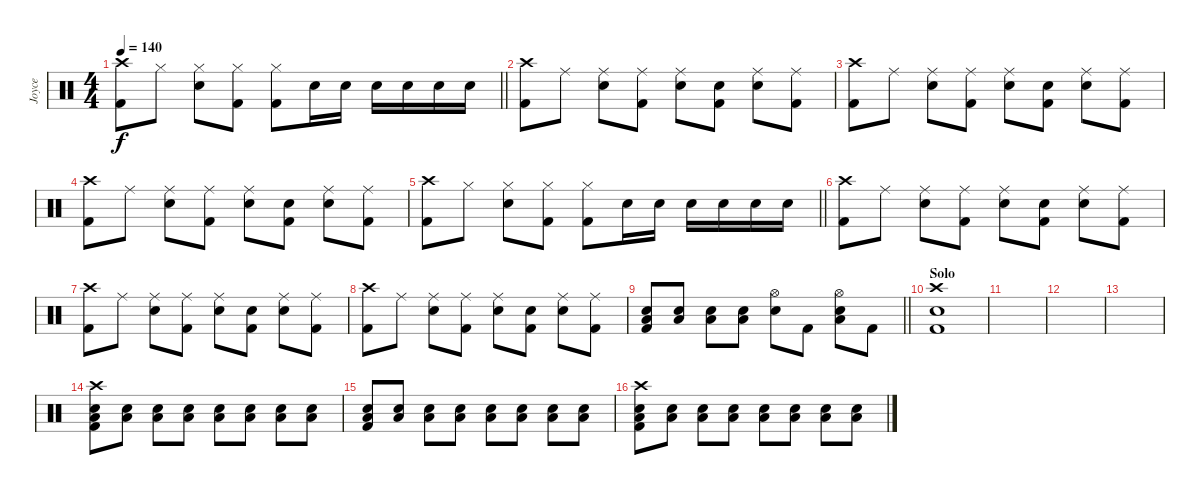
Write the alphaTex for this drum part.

\track ("Joyce" "Joyce") {instrument percussion}
\staff {score}
\articulation defaults
\ts (4 4)
\tempo 140
\clef neutral
\barLineRight lightlight
\ks c
("Crash high (hit)" "Kick (hit) 2").8{dy f} "Hi-Hat (closed)".8 ("Hi-Hat (closed)" "Snare (hit) 2").8 ("Hi-Hat (closed)" "Kick (hit) 2").8 ("Hi-Hat (closed)" "Kick (hit) 2").8 "Snare (hit) 2".16 "Snare (hit) 2".16 "Snare (hit) 2".16 "Snare (hit) 2".16 "Snare (hit) 2".16 "Snare (hit) 2".16 |
("Crash high (hit)" "Kick (hit) 2").8 "Ride (middle)".8 ("Ride (middle)" "Snare (hit) 2").8 ("Ride (middle)" "Kick (hit) 2").8 ("Ride (middle)" "Snare (hit) 2").8 ("Snare (hit)" "Kick (hit) 2").8 ("Ride (middle)" "Snare (hit) 2").8 ("Ride (middle)" "Kick (hit) 2").8 |
("Crash high (hit)" "Kick (hit) 2").8 "Ride (middle)".8 ("Ride (middle)" "Snare (hit) 2").8 ("Ride (middle)" "Kick (hit) 2").8 ("Ride (middle)" "Snare (hit) 2").8 ("Snare (hit)" "Kick (hit) 2").8 ("Ride (middle)" "Snare (hit) 2").8 ("Ride (middle)" "Kick (hit) 2").8 |
("Crash high (hit)" "Kick (hit) 2").8 "Ride (middle)".8 ("Ride (middle)" "Snare (hit) 2").8 ("Ride (middle)" "Kick (hit) 2").8 ("Ride (middle)" "Snare (hit) 2").8 ("Snare (hit)" "Kick (hit) 2").8 ("Ride (middle)" "Snare (hit) 2").8 ("Ride (middle)" "Kick (hit) 2").8 |
\barLineRight lightlight
("Crash high (hit)" "Kick (hit) 2").8 "Hi-Hat (closed)".8 ("Hi-Hat (closed)" "Snare (hit) 2").8 ("Hi-Hat (closed)" "Kick (hit) 2").8 ("Hi-Hat (closed)" "Kick (hit) 2").8 "Snare (hit) 2".16 "Snare (hit) 2".16 "Snare (hit) 2".16 "Snare (hit) 2".16 "Snare (hit) 2".16 "Snare (hit) 2".16 |
("Crash high (hit)" "Kick (hit) 2").8 "Ride (middle)".8 ("Ride (middle)" "Snare (hit) 2").8 ("Ride (middle)" "Kick (hit) 2").8 ("Ride (middle)" "Snare (hit) 2").8 ("Snare (hit)" "Kick (hit) 2").8 ("Ride (middle)" "Snare (hit) 2").8 ("Ride (middle)" "Kick (hit) 2").8 |
("Crash high (hit)" "Kick (hit) 2").8 "Ride (middle)".8 ("Ride (middle)" "Snare (hit) 2").8 ("Ride (middle)" "Kick (hit) 2").8 ("Ride (middle)" "Snare (hit) 2").8 ("Snare (hit)" "Kick (hit) 2").8 ("Ride (middle)" "Snare (hit) 2").8 ("Ride (middle)" "Kick (hit) 2").8 |
("Crash high (hit)" "Kick (hit) 2").8 "Ride (middle)".8 ("Ride (middle)" "Snare (hit) 2").8 ("Ride (middle)" "Kick (hit) 2").8 ("Ride (middle)" "Snare (hit) 2").8 ("Snare (hit)" "Kick (hit) 2").8 ("Ride (middle)" "Snare (hit) 2").8 ("Ride (middle)" "Kick (hit) 2").8 |
\barLineRight lightlight
("Low Tom (hit)" "Snare (hit) 2" "Kick (hit) 2").8 ("Low Tom (hit)" "Snare (hit) 2").8 ("Low Tom (hit)" "Snare (hit) 2").8 ("Low Tom (hit)" "Snare (hit) 2").8 ("Hi-Hat (open)" "Snare (hit) 2").8 "Kick (hit) 2".8 ("Hi-Hat (open)" "Low Tom (hit)" "Snare (hit) 2").8 "Kick (hit) 2".8 |
\section ("" "Solo")
("Crash high (hit)" "Snare (hit) 2" "Kick (hit) 2").1 |
|
|
|
("Crash high (hit)" "Low Tom (hit)" "Snare (hit) 2" "Kick (hit) 2").8 ("Low Tom (hit)" "Snare (hit) 2").8 ("Low Tom (hit)" "Snare (hit) 2").8 ("Low Tom (hit)" "Snare (hit) 2").8 ("Low Tom (hit)" "Snare (hit) 2").8 ("Low Tom (hit)" "Snare (hit) 2").8 ("Low Tom (hit)" "Snare (hit) 2").8 ("Low Tom (hit)" "Snare (hit) 2").8 |
("Low Tom (hit)" "Snare (hit) 2" "Kick (hit) 2").8 ("Low Tom (hit)" "Snare (hit) 2").8 ("Low Tom (hit)" "Snare (hit) 2").8 ("Low Tom (hit)" "Snare (hit) 2").8 ("Low Tom (hit)" "Snare (hit) 2").8 ("Low Tom (hit)" "Snare (hit) 2").8 ("Low Tom (hit)" "Snare (hit) 2").8 ("Low Tom (hit)" "Snare (hit) 2").8 |
("Crash high (hit)" "Low Tom (hit)" "Snare (hit) 2" "Kick (hit) 2").8 ("Low Tom (hit)" "Snare (hit) 2").8 ("Low Tom (hit)" "Snare (hit) 2").8 ("Low Tom (hit)" "Snare (hit) 2").8 ("Low Tom (hit)" "Snare (hit) 2").8 ("Low Tom (hit)" "Snare (hit) 2").8 ("Low Tom (hit)" "Snare (hit) 2").8 ("Low Tom (hit)" "Snare (hit) 2").8
